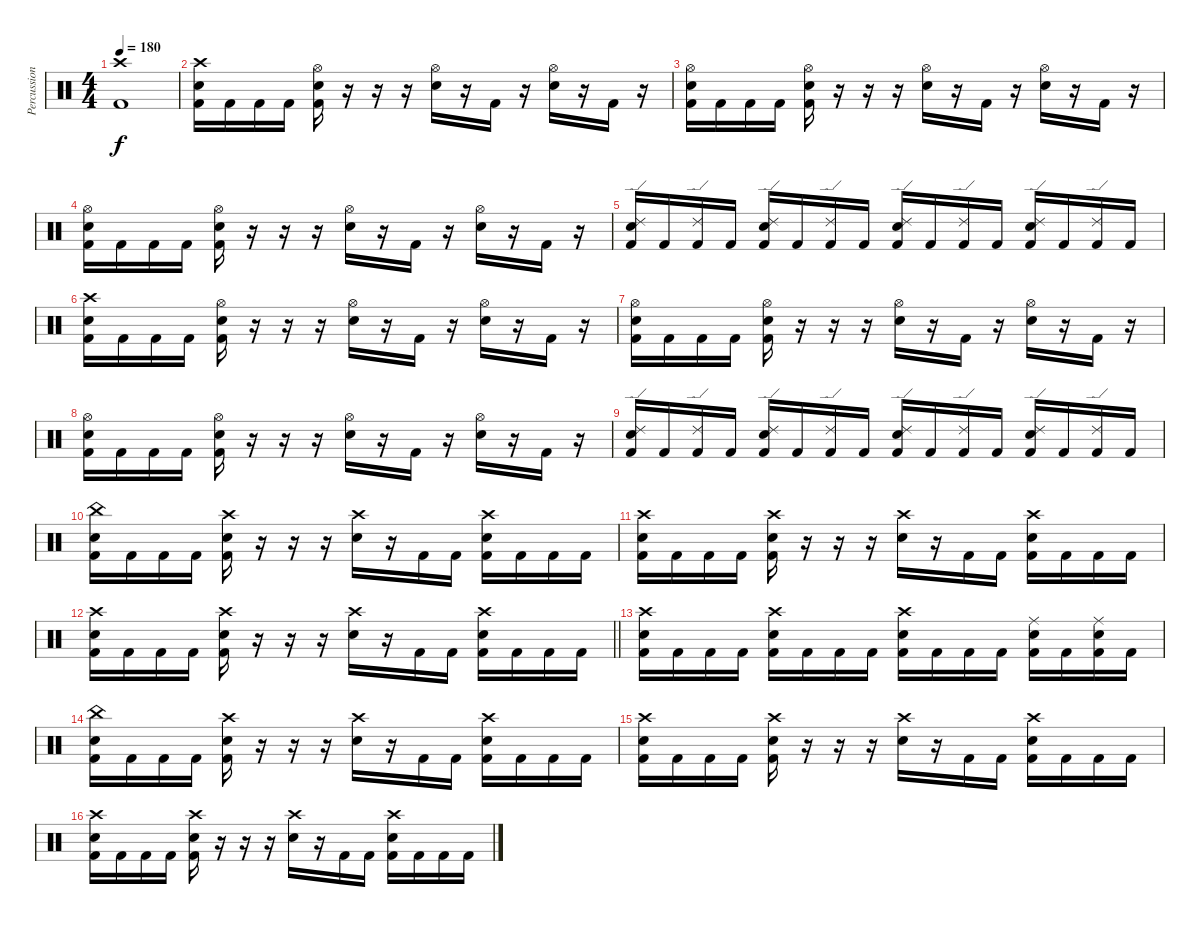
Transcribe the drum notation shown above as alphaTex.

\track ("Percussion" "Percussion") {instrument percussion}
\staff {score}
\articulation defaults
\ts (4 4)
\tempo 180
\clef neutral
\ks c
("Crash high (hit)" "Kick (hit) 2").1{dy f} |
("Crash high (hit)" "Snare (hit) 2" "Kick (hit) 2").16 "Kick (hit) 2".16 "Kick (hit) 2".16 "Kick (hit) 2".16 ("Hi-Hat (open)" "Snare (hit) 2" "Kick (hit) 2").16 r.16 r.16 r.16 ("Hi-Hat (open)" "Snare (hit) 2").16 r.16 "Kick (hit) 2".16 r.16 ("Hi-Hat (open)" "Snare (hit) 2").16 r.16 "Kick (hit) 2".16 r.16 |
("Hi-Hat (open)" "Snare (hit) 2" "Kick (hit) 2").16 "Kick (hit) 2".16 "Kick (hit) 2".16 "Kick (hit) 2".16 ("Hi-Hat (open)" "Snare (hit) 2" "Kick (hit) 2").16 r.16 r.16 r.16 ("Hi-Hat (open)" "Snare (hit) 2").16 r.16 "Kick (hit) 2".16 r.16 ("Hi-Hat (open)" "Snare (hit) 2").16 r.16 "Kick (hit) 2".16 r.16 |
("Hi-Hat (open)" "Snare (hit) 2" "Kick (hit) 2").16 "Kick (hit) 2".16 "Kick (hit) 2".16 "Kick (hit) 2".16 ("Hi-Hat (open)" "Snare (hit) 2" "Kick (hit) 2").16 r.16 r.16 r.16 ("Hi-Hat (open)" "Snare (hit) 2").16 r.16 "Kick (hit) 2".16 r.16 ("Hi-Hat (open)" "Snare (hit) 2").16 r.16 "Kick (hit) 2".16 r.16 |
("Ride (edge) 2" "Snare (hit) 2" "Kick (hit) 2").16 "Kick (hit) 2".16 ("Ride (edge) 2" "Kick (hit) 2").16 "Kick (hit) 2".16 ("Ride (edge) 2" "Snare (hit) 2" "Kick (hit) 2").16 "Kick (hit) 2".16 ("Ride (edge) 2" "Kick (hit) 2").16 "Kick (hit) 2".16 ("Ride (edge) 2" "Snare (hit) 2" "Kick (hit) 2").16 "Kick (hit) 2".16 ("Ride (edge) 2" "Kick (hit) 2").16 "Kick (hit) 2".16 ("Ride (edge) 2" "Snare (hit) 2" "Kick (hit) 2").16 "Kick (hit) 2".16 ("Ride (edge) 2" "Kick (hit) 2").16 "Kick (hit) 2".16 |
("Crash high (hit)" "Snare (hit) 2" "Kick (hit) 2").16 "Kick (hit) 2".16 "Kick (hit) 2".16 "Kick (hit) 2".16 ("Hi-Hat (open)" "Snare (hit) 2" "Kick (hit) 2").16 r.16 r.16 r.16 ("Hi-Hat (open)" "Snare (hit) 2").16 r.16 "Kick (hit) 2".16 r.16 ("Hi-Hat (open)" "Snare (hit) 2").16 r.16 "Kick (hit) 2".16 r.16 |
("Hi-Hat (open)" "Snare (hit) 2" "Kick (hit) 2").16 "Kick (hit) 2".16 "Kick (hit) 2".16 "Kick (hit) 2".16 ("Hi-Hat (open)" "Snare (hit) 2" "Kick (hit) 2").16 r.16 r.16 r.16 ("Hi-Hat (open)" "Snare (hit) 2").16 r.16 "Kick (hit) 2".16 r.16 ("Hi-Hat (open)" "Snare (hit) 2").16 r.16 "Kick (hit) 2".16 r.16 |
("Hi-Hat (open)" "Snare (hit) 2" "Kick (hit) 2").16 "Kick (hit) 2".16 "Kick (hit) 2".16 "Kick (hit) 2".16 ("Hi-Hat (open)" "Snare (hit) 2" "Kick (hit) 2").16 r.16 r.16 r.16 ("Hi-Hat (open)" "Snare (hit) 2").16 r.16 "Kick (hit) 2".16 r.16 ("Hi-Hat (open)" "Snare (hit) 2").16 r.16 "Kick (hit) 2".16 r.16 |
("Ride (edge) 2" "Snare (hit) 2" "Kick (hit) 2").16 "Kick (hit) 2".16 ("Ride (edge) 2" "Kick (hit) 2").16 "Kick (hit) 2".16 ("Ride (edge) 2" "Snare (hit) 2" "Kick (hit) 2").16 "Kick (hit) 2".16 ("Ride (edge) 2" "Kick (hit) 2").16 "Kick (hit) 2".16 ("Ride (edge) 2" "Snare (hit) 2" "Kick (hit) 2").16 "Kick (hit) 2".16 ("Ride (edge) 2" "Kick (hit) 2").16 "Kick (hit) 2".16 ("Ride (edge) 2" "Snare (hit) 2" "Kick (hit) 2").16 "Kick (hit) 2".16 ("Ride (edge) 2" "Kick (hit) 2").16 "Kick (hit) 2".16 |
("China (hit)" "Snare (hit) 2" "Kick (hit) 2").16 "Kick (hit) 2".16 "Kick (hit) 2".16 "Kick (hit) 2".16 ("Crash high (hit)" "Snare (hit) 2" "Kick (hit) 2").16 r.16 r.16 r.16 ("Crash high (hit)" "Snare (hit) 2").16 r.16 "Kick (hit) 2".16 "Kick (hit) 2".16 ("Crash high (hit)" "Snare (hit) 2" "Kick (hit) 2").16 "Kick (hit) 2".16 "Kick (hit) 2".16 "Kick (hit) 2".16 |
("Crash high (hit)" "Snare (hit) 2" "Kick (hit) 2").16 "Kick (hit) 2".16 "Kick (hit) 2".16 "Kick (hit) 2".16 ("Crash high (hit)" "Snare (hit) 2" "Kick (hit) 2").16 r.16 r.16 r.16 ("Crash high (hit)" "Snare (hit) 2").16 r.16 "Kick (hit) 2".16 "Kick (hit) 2".16 ("Crash high (hit)" "Snare (hit) 2" "Kick (hit) 2").16 "Kick (hit) 2".16 "Kick (hit) 2".16 "Kick (hit) 2".16 |
\barLineRight lightlight
("Crash high (hit)" "Snare (hit) 2" "Kick (hit) 2").16 "Kick (hit) 2".16 "Kick (hit) 2".16 "Kick (hit) 2".16 ("Crash high (hit)" "Snare (hit) 2" "Kick (hit) 2").16 r.16 r.16 r.16 ("Crash high (hit)" "Snare (hit) 2").16 r.16 "Kick (hit) 2".16 "Kick (hit) 2".16 ("Crash high (hit)" "Snare (hit) 2" "Kick (hit) 2").16 "Kick (hit) 2".16 "Kick (hit) 2".16 "Kick (hit) 2".16 |
("Crash high (hit)" "Snare (hit) 2" "Kick (hit) 2").16 "Kick (hit) 2".16 "Kick (hit) 2".16 "Kick (hit) 2".16 ("Crash high (hit)" "Snare (hit) 2" "Kick (hit) 2").16 "Kick (hit) 2".16 "Kick (hit) 2".16 "Kick (hit) 2".16 ("Crash high (hit)" "Snare (hit) 2" "Kick (hit) 2").16 "Kick (hit) 2".16 "Kick (hit) 2".16 "Kick (hit) 2".16 ("Ride (middle)" "Snare (hit) 2" "Kick (hit) 2").16 "Kick (hit) 2".16 ("Ride (middle)" "Snare (hit) 2" "Kick (hit) 2").16 "Kick (hit) 2".16 |
("China (hit)" "Snare (hit) 2" "Kick (hit) 2").16 "Kick (hit) 2".16 "Kick (hit) 2".16 "Kick (hit) 2".16 ("Crash high (hit)" "Snare (hit) 2" "Kick (hit) 2").16 r.16 r.16 r.16 ("Crash high (hit)" "Snare (hit) 2").16 r.16 "Kick (hit) 2".16 "Kick (hit) 2".16 ("Crash high (hit)" "Snare (hit) 2" "Kick (hit) 2").16 "Kick (hit) 2".16 "Kick (hit) 2".16 "Kick (hit) 2".16 |
("Crash high (hit)" "Snare (hit) 2" "Kick (hit) 2").16 "Kick (hit) 2".16 "Kick (hit) 2".16 "Kick (hit) 2".16 ("Crash high (hit)" "Snare (hit) 2" "Kick (hit) 2").16 r.16 r.16 r.16 ("Crash high (hit)" "Snare (hit) 2").16 r.16 "Kick (hit) 2".16 "Kick (hit) 2".16 ("Crash high (hit)" "Snare (hit) 2" "Kick (hit) 2").16 "Kick (hit) 2".16 "Kick (hit) 2".16 "Kick (hit) 2".16 |
("Crash high (hit)" "Snare (hit) 2" "Kick (hit) 2").16 "Kick (hit) 2".16 "Kick (hit) 2".16 "Kick (hit) 2".16 ("Crash high (hit)" "Snare (hit) 2" "Kick (hit) 2").16 r.16 r.16 r.16 ("Crash high (hit)" "Snare (hit) 2").16 r.16 "Kick (hit) 2".16 "Kick (hit) 2".16 ("Crash high (hit)" "Snare (hit) 2" "Kick (hit) 2").16 "Kick (hit) 2".16 "Kick (hit) 2".16 "Kick (hit) 2".16
